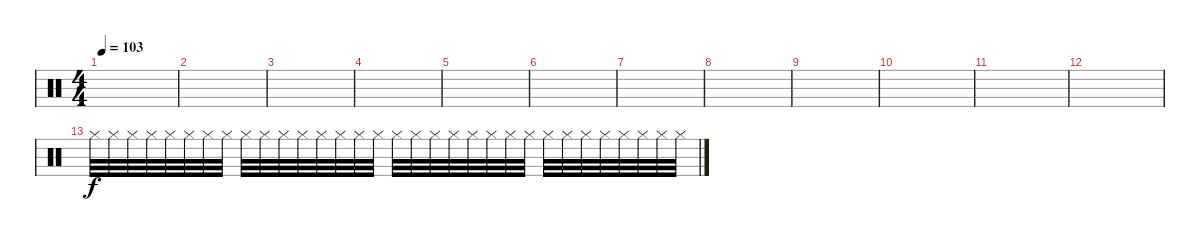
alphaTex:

\track "" {instrument percussion}
\staff {score}
\articulation defaults
\ts (4 4)
\tempo 103
\clef neutral
\ks c
|
|
|
|
|
|
|
|
|
|
|
|
"Hi-Hat (closed)".32 "Hi-Hat (closed)".32 "Hi-Hat (closed)".32 "Hi-Hat (closed)".32 "Hi-Hat (closed)".32 "Hi-Hat (closed)".32 "Hi-Hat (closed)".32 "Hi-Hat (closed)".32 "Hi-Hat (closed)".32 "Hi-Hat (closed)".32 "Hi-Hat (closed)".32 "Hi-Hat (closed)".32 "Hi-Hat (closed)".32 "Hi-Hat (closed)".32 "Hi-Hat (closed)".32 "Hi-Hat (closed)".32 "Hi-Hat (closed)".32 "Hi-Hat (closed)".32 "Hi-Hat (closed)".32 "Hi-Hat (closed)".32 "Hi-Hat (closed)".32 "Hi-Hat (closed)".32 "Hi-Hat (closed)".32 "Hi-Hat (closed)".32 "Hi-Hat (closed)".32 "Hi-Hat (closed)".32 "Hi-Hat (closed)".32 "Hi-Hat (closed)".32 "Hi-Hat (closed)".32 "Hi-Hat (closed)".32 "Hi-Hat (closed)".32 "Hi-Hat (closed)".32
